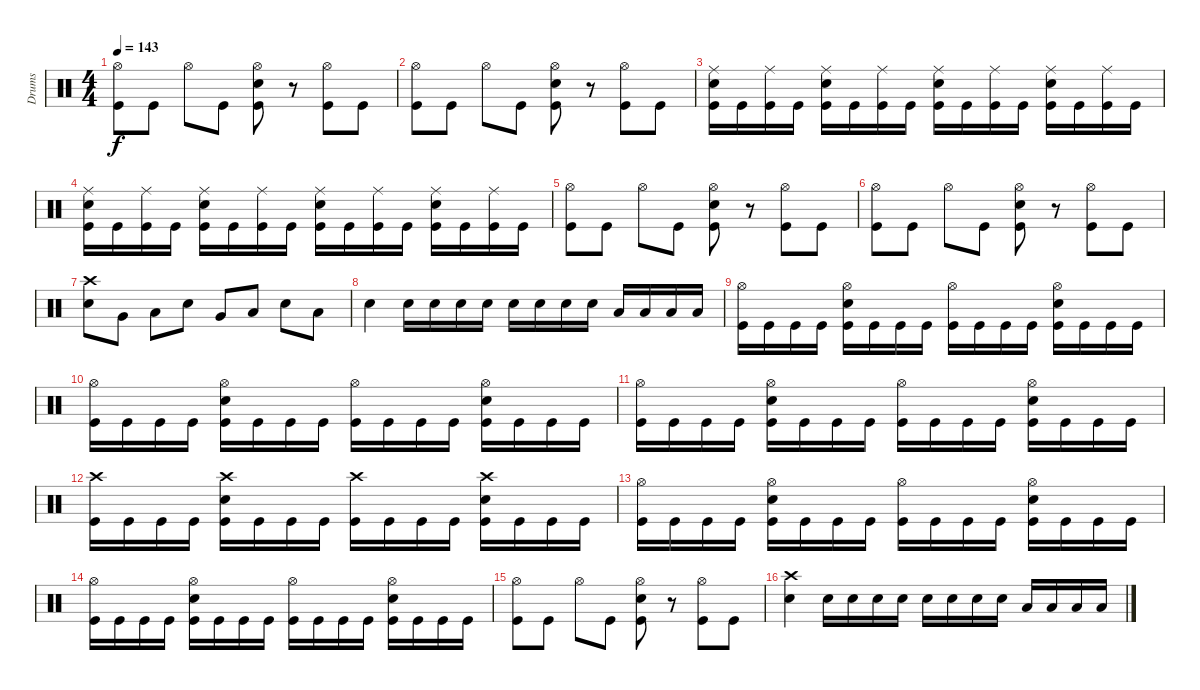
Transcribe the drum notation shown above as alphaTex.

\track ("Drums" "Drums") {instrument percussion}
\staff {score}
\articulation defaults
\ts (4 4)
\tempo 143
\clef neutral
\ks c
("Hi-Hat (open)" "Kick (hit)").8{dy f} "Kick (hit)".8 "Hi-Hat (open)".8 "Kick (hit)".8 ("Hi-Hat (open)" "Snare (hit) 2" "Kick (hit)").8 r.8 ("Hi-Hat (open)" "Kick (hit)").8 "Kick (hit)".8 |
("Hi-Hat (open)" "Kick (hit)").8 "Kick (hit)".8 "Hi-Hat (open)".8 "Kick (hit)".8 ("Hi-Hat (open)" "Snare (hit) 2" "Kick (hit)").8 r.8 ("Hi-Hat (open)" "Kick (hit)").8 "Kick (hit)".8 |
("Ride (middle)" "Snare (hit) 2" "Kick (hit)").16 "Kick (hit)".16 ("Ride (middle)" "Kick (hit)").16 "Kick (hit)".16 ("Ride (middle)" "Snare (hit) 2" "Kick (hit)").16 "Kick (hit)".16 ("Ride (middle)" "Kick (hit)").16 "Kick (hit)".16 ("Ride (middle)" "Snare (hit) 2" "Kick (hit)").16 "Kick (hit)".16 ("Ride (middle)" "Kick (hit)").16 "Kick (hit)".16 ("Ride (middle)" "Snare (hit) 2" "Kick (hit)").16 "Kick (hit)".16 ("Ride (middle)" "Kick (hit)").16 "Kick (hit)".16 |
("Ride (middle)" "Snare (hit) 2" "Kick (hit)").16 "Kick (hit)".16 ("Ride (middle)" "Kick (hit)").16 "Kick (hit)".16 ("Ride (middle)" "Snare (hit) 2" "Kick (hit)").16 "Kick (hit)".16 ("Ride (middle)" "Kick (hit)").16 "Kick (hit)".16 ("Ride (middle)" "Snare (hit) 2" "Kick (hit)").16 "Kick (hit)".16 ("Ride (middle)" "Kick (hit)").16 "Kick (hit)".16 ("Ride (middle)" "Snare (hit) 2" "Kick (hit)").16 "Kick (hit)".16 ("Ride (middle)" "Kick (hit)").16 "Kick (hit)".16 |
("Hi-Hat (open)" "Kick (hit)").8 "Kick (hit)".8 "Hi-Hat (open)".8 "Kick (hit)".8 ("Hi-Hat (open)" "Snare (hit) 2" "Kick (hit)").8 r.8 ("Hi-Hat (open)" "Kick (hit)").8 "Kick (hit)".8 |
("Hi-Hat (open)" "Kick (hit)").8 "Kick (hit)".8 "Hi-Hat (open)".8 "Kick (hit)".8 ("Hi-Hat (open)" "Snare (hit) 2" "Kick (hit)").8 r.8 ("Hi-Hat (open)" "Kick (hit)").8 "Kick (hit)".8 |
("Crash high (hit)" "Snare (hit) 2").8 "Very Low Tom (hit)".8 "Low Tom (hit)".8 "Snare (hit) 2".8 "Very Low Tom (hit)".8 "Low Tom (hit)".8 "Snare (hit) 2".8 "Low Tom (hit)".8 |
"Snare (hit) 2".4 "Snare (hit) 2".16 "Snare (hit) 2".16 "Snare (hit) 2".16 "Snare (hit) 2".16 "Snare (hit) 2".16 "Snare (hit) 2".16 "Snare (hit) 2".16 "Snare (hit) 2".16 "Low Tom (hit)".16 "Low Tom (hit)".16 "Low Tom (hit)".16 "Low Tom (hit)".16 |
("Hi-Hat (open)" "Kick (hit)").16 "Kick (hit)".16 "Kick (hit)".16 "Kick (hit)".16 ("Hi-Hat (open)" "Snare (hit) 2" "Kick (hit)").16 "Kick (hit)".16 "Kick (hit)".16 "Kick (hit)".16 ("Hi-Hat (open)" "Kick (hit)").16 "Kick (hit)".16 "Kick (hit)".16 "Kick (hit)".16 ("Hi-Hat (open)" "Snare (hit) 2" "Kick (hit)").16 "Kick (hit)".16 "Kick (hit)".16 "Kick (hit)".16 |
("Hi-Hat (open)" "Kick (hit)").16 "Kick (hit)".16 "Kick (hit)".16 "Kick (hit)".16 ("Hi-Hat (open)" "Snare (hit) 2" "Kick (hit)").16 "Kick (hit)".16 "Kick (hit)".16 "Kick (hit)".16 ("Hi-Hat (open)" "Kick (hit)").16 "Kick (hit)".16 "Kick (hit)".16 "Kick (hit)".16 ("Hi-Hat (open)" "Snare (hit) 2" "Kick (hit)").16 "Kick (hit)".16 "Kick (hit)".16 "Kick (hit)".16 |
("Hi-Hat (open)" "Kick (hit)").16 "Kick (hit)".16 "Kick (hit)".16 "Kick (hit)".16 ("Hi-Hat (open)" "Snare (hit) 2" "Kick (hit)").16 "Kick (hit)".16 "Kick (hit)".16 "Kick (hit)".16 ("Hi-Hat (open)" "Kick (hit)").16 "Kick (hit)".16 "Kick (hit)".16 "Kick (hit)".16 ("Hi-Hat (open)" "Snare (hit) 2" "Kick (hit)").16 "Kick (hit)".16 "Kick (hit)".16 "Kick (hit)".16 |
("Crash high (hit)" "Kick (hit)").16 "Kick (hit)".16 "Kick (hit)".16 "Kick (hit)".16 ("Crash high (hit)" "Snare (hit) 2" "Kick (hit)").16 "Kick (hit)".16 "Kick (hit)".16 "Kick (hit)".16 ("Crash high (hit)" "Kick (hit)").16 "Kick (hit)".16 "Kick (hit)".16 "Kick (hit)".16 ("Crash high (hit)" "Snare (hit) 2" "Kick (hit)").16 "Kick (hit)".16 "Kick (hit)".16 "Kick (hit)".16 |
("Hi-Hat (open)" "Kick (hit)").16 "Kick (hit)".16 "Kick (hit)".16 "Kick (hit)".16 ("Hi-Hat (open)" "Snare (hit) 2" "Kick (hit)").16 "Kick (hit)".16 "Kick (hit)".16 "Kick (hit)".16 ("Hi-Hat (open)" "Kick (hit)").16 "Kick (hit)".16 "Kick (hit)".16 "Kick (hit)".16 ("Hi-Hat (open)" "Snare (hit) 2" "Kick (hit)").16 "Kick (hit)".16 "Kick (hit)".16 "Kick (hit)".16 |
("Hi-Hat (open)" "Kick (hit)").16 "Kick (hit)".16 "Kick (hit)".16 "Kick (hit)".16 ("Hi-Hat (open)" "Snare (hit) 2" "Kick (hit)").16 "Kick (hit)".16 "Kick (hit)".16 "Kick (hit)".16 ("Hi-Hat (open)" "Kick (hit)").16 "Kick (hit)".16 "Kick (hit)".16 "Kick (hit)".16 ("Hi-Hat (open)" "Snare (hit) 2" "Kick (hit)").16 "Kick (hit)".16 "Kick (hit)".16 "Kick (hit)".16 |
("Hi-Hat (open)" "Kick (hit)").8 "Kick (hit)".8 "Hi-Hat (open)".8 "Kick (hit)".8 ("Hi-Hat (open)" "Snare (hit) 2" "Kick (hit)").8 r.8 ("Hi-Hat (open)" "Kick (hit)").8 "Kick (hit)".8 |
("Crash high (hit)" "Snare (hit) 2").4 "Snare (hit) 2".16 "Snare (hit) 2".16 "Snare (hit) 2".16 "Snare (hit) 2".16 "Snare (hit) 2".16 "Snare (hit) 2".16 "Snare (hit) 2".16 "Snare (hit) 2".16 "Low Tom (hit)".16 "Low Tom (hit)".16 "Low Tom (hit)".16 "Low Tom (hit)".16
